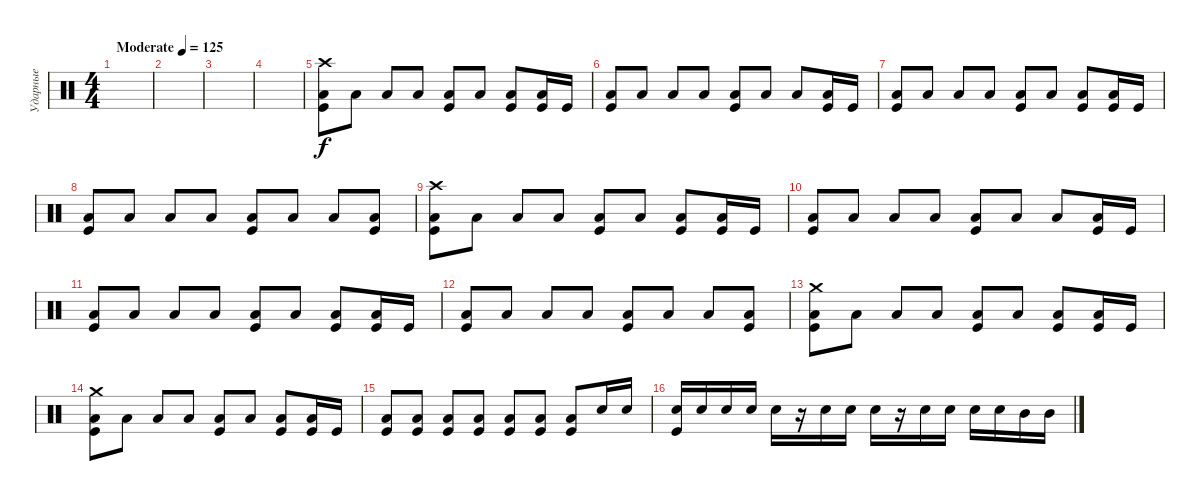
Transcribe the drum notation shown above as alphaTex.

\track ("Ударные" "Ударные") {instrument percussion}
\staff {score}
\articulation defaults
\ts (4 4)
\tempo (125 "Moderate")
\clef neutral
\ks c
|
|
|
|
("Crash high (hit)" "Low Floor Tom (hit)" "Kick (hit)").8 "Low Floor Tom (hit)".8 "Low Floor Tom (hit)".8 "Low Floor Tom (hit)".8 ("Low Floor Tom (hit)" "Kick (hit)").8 "Low Floor Tom (hit)".8 ("Low Floor Tom (hit)" "Kick (hit)").8 ("Low Floor Tom (hit)" "Kick (hit)").16 "Kick (hit)".16 |
("Low Floor Tom (hit)" "Kick (hit)").8 "Low Floor Tom (hit)".8 "Low Floor Tom (hit)".8 "Low Floor Tom (hit)".8 ("Low Floor Tom (hit)" "Kick (hit)").8 "Low Floor Tom (hit)".8 "Low Floor Tom (hit)".8 ("Low Floor Tom (hit)" "Kick (hit)").16 "Kick (hit)".16 |
("Low Floor Tom (hit)" "Kick (hit)").8 "Low Floor Tom (hit)".8 "Low Floor Tom (hit)".8 "Low Floor Tom (hit)".8 ("Low Floor Tom (hit)" "Kick (hit)").8 "Low Floor Tom (hit)".8 ("Low Floor Tom (hit)" "Kick (hit)").8 ("Low Floor Tom (hit)" "Kick (hit)").16 "Kick (hit)".16 |
("Low Floor Tom (hit)" "Kick (hit)").8 "Low Floor Tom (hit)".8 "Low Floor Tom (hit)".8 "Low Floor Tom (hit)".8 ("Low Floor Tom (hit)" "Kick (hit)").8 "Low Floor Tom (hit)".8 "Low Floor Tom (hit)".8 ("Low Floor Tom (hit)" "Kick (hit)").8 |
("Crash high (hit)" "Low Floor Tom (hit)" "Kick (hit)").8 "Low Floor Tom (hit)".8 "Low Floor Tom (hit)".8 "Low Floor Tom (hit)".8 ("Low Floor Tom (hit)" "Kick (hit)").8 "Low Floor Tom (hit)".8 ("Low Floor Tom (hit)" "Kick (hit)").8 ("Low Floor Tom (hit)" "Kick (hit)").16 "Kick (hit)".16 |
("Low Floor Tom (hit)" "Kick (hit)").8 "Low Floor Tom (hit)".8 "Low Floor Tom (hit)".8 "Low Floor Tom (hit)".8 ("Low Floor Tom (hit)" "Kick (hit)").8 "Low Floor Tom (hit)".8 "Low Floor Tom (hit)".8 ("Low Floor Tom (hit)" "Kick (hit)").16 "Kick (hit)".16 |
("Low Floor Tom (hit)" "Kick (hit)").8 "Low Floor Tom (hit)".8 "Low Floor Tom (hit)".8 "Low Floor Tom (hit)".8 ("Low Floor Tom (hit)" "Kick (hit)").8 "Low Floor Tom (hit)".8 ("Low Floor Tom (hit)" "Kick (hit)").8 ("Low Floor Tom (hit)" "Kick (hit)").16 "Kick (hit)".16 |
("Low Floor Tom (hit)" "Kick (hit)").8 "Low Floor Tom (hit)".8 "Low Floor Tom (hit)".8 "Low Floor Tom (hit)".8 ("Low Floor Tom (hit)" "Kick (hit)").8 "Low Floor Tom (hit)".8 "Low Floor Tom (hit)".8 ("Low Floor Tom (hit)" "Kick (hit)").8 |
("Crash medium (hit)" "Low Floor Tom (hit)" "Kick (hit)").8 "Low Floor Tom (hit)".8 "Low Floor Tom (hit)".8 "Low Floor Tom (hit)".8 ("Low Floor Tom (hit)" "Kick (hit)").8 "Low Floor Tom (hit)".8 ("Low Floor Tom (hit)" "Kick (hit)").8 ("Low Floor Tom (hit)" "Kick (hit)").16 "Kick (hit)".16 |
("Crash medium (hit)" "Low Floor Tom (hit)" "Kick (hit)").8 "Low Floor Tom (hit)".8 "Low Floor Tom (hit)".8 "Low Floor Tom (hit)".8 ("Low Floor Tom (hit)" "Kick (hit)").8 "Low Floor Tom (hit)".8 ("Low Floor Tom (hit)" "Kick (hit)").8 ("Low Floor Tom (hit)" "Kick (hit)").16 "Kick (hit)".16 |
("Low Floor Tom (hit)" "Kick (hit)").8 ("Low Floor Tom (hit)" "Kick (hit)").8 ("Low Floor Tom (hit)" "Kick (hit)").8 ("Low Floor Tom (hit)" "Kick (hit)").8 ("Low Floor Tom (hit)" "Kick (hit)").8 ("Low Floor Tom (hit)" "Kick (hit)").8 ("Low Floor Tom (hit)" "Kick (hit)").8 "Electric Snare (hit)".16 "Electric Snare (hit)".16 |
("Electric Snare (hit)" "Kick (hit)").16 "Electric Snare (hit)".16 "Electric Snare (hit)".16 "Electric Snare (hit)".16 "Electric Snare (hit)".16 r.16 "Electric Snare (hit)".16 "Electric Snare (hit)".16 "Electric Snare (hit)".16 r.16 "Electric Snare (hit)".16 "Electric Snare (hit)".16 "Electric Snare (hit)".16 "Electric Snare (hit)".16 "Mid Tom (hit)".16 "Mid Tom (hit)".16
